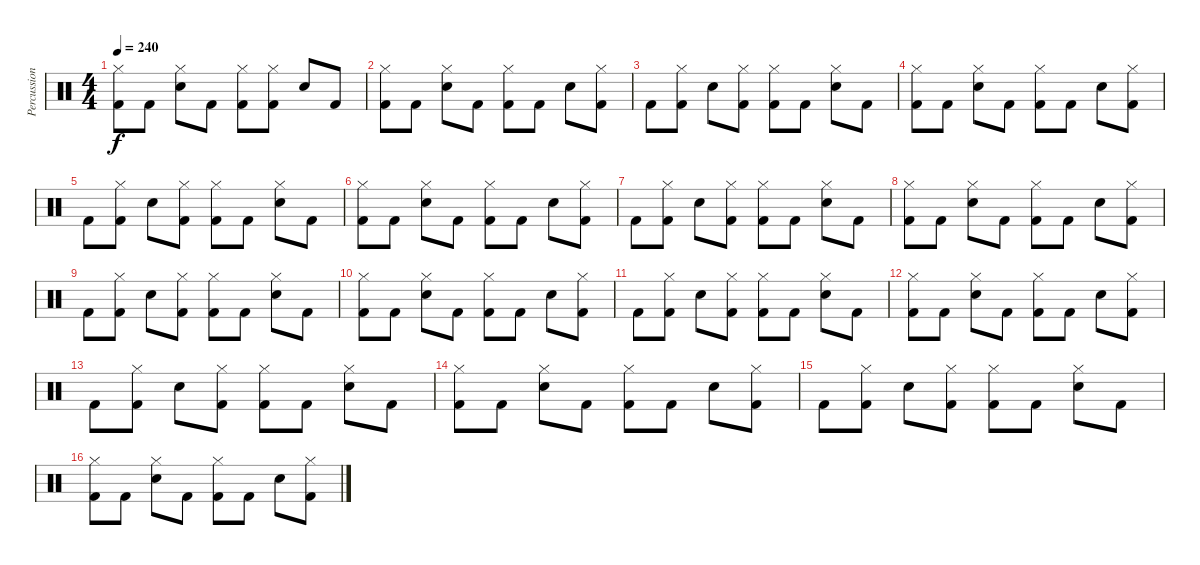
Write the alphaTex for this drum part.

\track ("Percussion" "Percussion") {instrument percussion}
\staff {score}
\articulation defaults
\ts (4 4)
\tempo 240
\clef neutral
\ks c
("Kick (hit) 2" "Hi-Hat (closed)").8{dy f} "Kick (hit) 2".8 ("Snare (hit) 2" "Hi-Hat (closed)").8 "Kick (hit) 2".8 ("Kick (hit) 2" "Hi-Hat (closed)").8 ("Kick (hit) 2" "Hi-Hat (closed)").8 "Snare (hit) 2".8 "Kick (hit) 2".8 |
("Kick (hit) 2" "Hi-Hat (closed)").8 "Kick (hit) 2".8 ("Snare (hit) 2" "Hi-Hat (closed)").8 "Kick (hit) 2".8 ("Kick (hit) 2" "Hi-Hat (closed)").8 "Kick (hit) 2".8 "Snare (hit) 2".8 ("Kick (hit) 2" "Hi-Hat (closed)").8 |
"Kick (hit) 2".8 ("Kick (hit) 2" "Hi-Hat (closed)").8 "Snare (hit) 2".8 ("Kick (hit) 2" "Hi-Hat (closed)").8 ("Kick (hit) 2" "Hi-Hat (closed)").8 "Kick (hit) 2".8 ("Snare (hit) 2" "Hi-Hat (closed)").8 "Kick (hit) 2".8 |
("Kick (hit) 2" "Hi-Hat (closed)").8 "Kick (hit) 2".8 ("Snare (hit) 2" "Hi-Hat (closed)").8 "Kick (hit) 2".8 ("Kick (hit) 2" "Hi-Hat (closed)").8 "Kick (hit) 2".8 "Snare (hit) 2".8 ("Kick (hit) 2" "Hi-Hat (closed)").8 |
"Kick (hit) 2".8 ("Kick (hit) 2" "Hi-Hat (closed)").8 "Snare (hit) 2".8 ("Kick (hit) 2" "Hi-Hat (closed)").8 ("Kick (hit) 2" "Hi-Hat (closed)").8 "Kick (hit) 2".8 ("Snare (hit) 2" "Hi-Hat (closed)").8 "Kick (hit) 2".8 |
("Kick (hit) 2" "Hi-Hat (closed)").8 "Kick (hit) 2".8 ("Snare (hit) 2" "Hi-Hat (closed)").8 "Kick (hit) 2".8 ("Kick (hit) 2" "Hi-Hat (closed)").8 "Kick (hit) 2".8 "Snare (hit) 2".8 ("Kick (hit) 2" "Hi-Hat (closed)").8 |
"Kick (hit) 2".8 ("Kick (hit) 2" "Hi-Hat (closed)").8 "Snare (hit) 2".8 ("Kick (hit) 2" "Hi-Hat (closed)").8 ("Kick (hit) 2" "Hi-Hat (closed)").8 "Kick (hit) 2".8 ("Snare (hit) 2" "Hi-Hat (closed)").8 "Kick (hit) 2".8 |
("Kick (hit) 2" "Hi-Hat (closed)").8 "Kick (hit) 2".8 ("Snare (hit) 2" "Hi-Hat (closed)").8 "Kick (hit) 2".8 ("Kick (hit) 2" "Hi-Hat (closed)").8 "Kick (hit) 2".8 "Snare (hit) 2".8 ("Kick (hit) 2" "Hi-Hat (closed)").8 |
"Kick (hit) 2".8 ("Kick (hit) 2" "Hi-Hat (closed)").8 "Snare (hit) 2".8 ("Kick (hit) 2" "Hi-Hat (closed)").8 ("Kick (hit) 2" "Hi-Hat (closed)").8 "Kick (hit) 2".8 ("Snare (hit) 2" "Hi-Hat (closed)").8 "Kick (hit) 2".8 |
("Kick (hit) 2" "Hi-Hat (closed)").8 "Kick (hit) 2".8 ("Snare (hit) 2" "Hi-Hat (closed)").8 "Kick (hit) 2".8 ("Kick (hit) 2" "Hi-Hat (closed)").8 "Kick (hit) 2".8 "Snare (hit) 2".8 ("Kick (hit) 2" "Hi-Hat (closed)").8 |
"Kick (hit) 2".8 ("Kick (hit) 2" "Hi-Hat (closed)").8 "Snare (hit) 2".8 ("Kick (hit) 2" "Hi-Hat (closed)").8 ("Kick (hit) 2" "Hi-Hat (closed)").8 "Kick (hit) 2".8 ("Snare (hit) 2" "Hi-Hat (closed)").8 "Kick (hit) 2".8 |
("Kick (hit) 2" "Hi-Hat (closed)").8 "Kick (hit) 2".8 ("Snare (hit) 2" "Hi-Hat (closed)").8 "Kick (hit) 2".8 ("Kick (hit) 2" "Hi-Hat (closed)").8 "Kick (hit) 2".8 "Snare (hit) 2".8 ("Kick (hit) 2" "Hi-Hat (closed)").8 |
"Kick (hit) 2".8 ("Kick (hit) 2" "Hi-Hat (closed)").8 "Snare (hit) 2".8 ("Kick (hit) 2" "Hi-Hat (closed)").8 ("Kick (hit) 2" "Hi-Hat (closed)").8 "Kick (hit) 2".8 ("Snare (hit) 2" "Hi-Hat (closed)").8 "Kick (hit) 2".8 |
("Kick (hit) 2" "Hi-Hat (closed)").8 "Kick (hit) 2".8 ("Snare (hit) 2" "Hi-Hat (closed)").8 "Kick (hit) 2".8 ("Kick (hit) 2" "Hi-Hat (closed)").8 "Kick (hit) 2".8 "Snare (hit) 2".8 ("Kick (hit) 2" "Hi-Hat (closed)").8 |
"Kick (hit) 2".8 ("Kick (hit) 2" "Hi-Hat (closed)").8 "Snare (hit) 2".8 ("Kick (hit) 2" "Hi-Hat (closed)").8 ("Kick (hit) 2" "Hi-Hat (closed)").8 "Kick (hit) 2".8 ("Snare (hit) 2" "Hi-Hat (closed)").8 "Kick (hit) 2".8 |
("Kick (hit) 2" "Hi-Hat (closed)").8 "Kick (hit) 2".8 ("Snare (hit) 2" "Hi-Hat (closed)").8 "Kick (hit) 2".8 ("Kick (hit) 2" "Hi-Hat (closed)").8 "Kick (hit) 2".8 "Snare (hit) 2".8 ("Kick (hit) 2" "Hi-Hat (closed)").8
